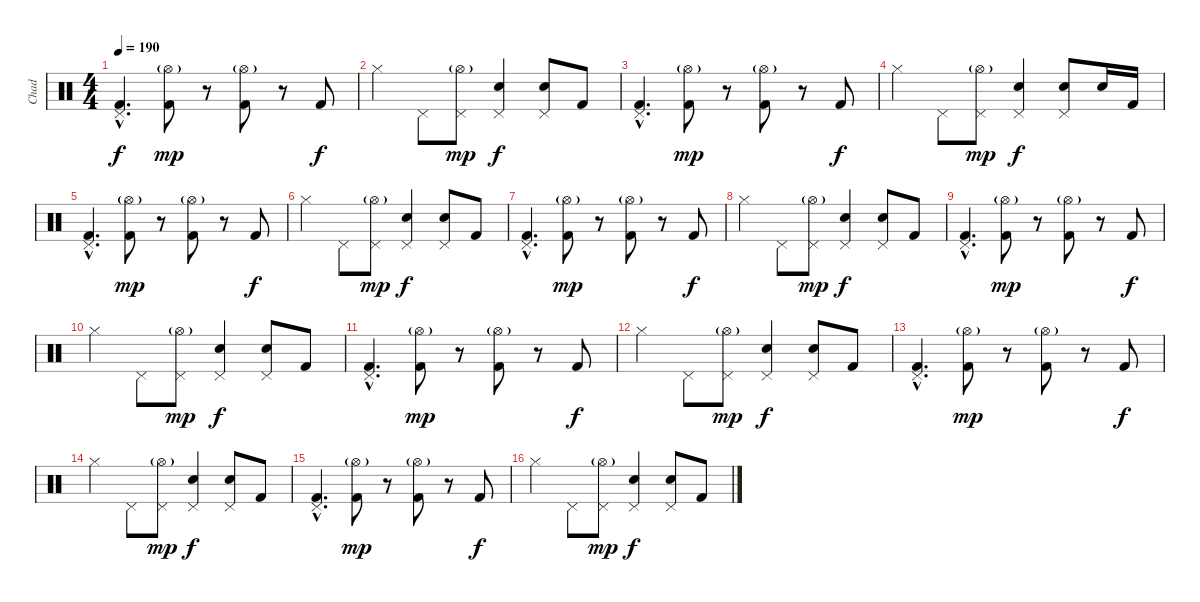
\track ("Chad" "Chad") {instrument percussion}
\staff {score}
\articulation defaults
\ts (4 4)
\tempo 190
\clef neutral
\ks c
("Kick (hit) 2"{hac} "Pedal Hi-Hat (hit)"{hac}).4{d dy f} ("Kick (hit) 2" "Hi-Hat (open)"{g}).8{dy mp} r.8 ("Kick (hit) 2" "Hi-Hat (open)"{g}).8 r.8 "Kick (hit) 2".8{dy f} |
"Hi-Hat (closed)".4 "Pedal Hi-Hat (hit)".8 ("Pedal Hi-Hat (hit)" "Hi-Hat (open)"{g}).8{dy mp} ("Electric Snare (hit)" "Pedal Hi-Hat (hit)").4{dy f} ("Electric Snare (hit)" "Pedal Hi-Hat (hit)").8 "Kick (hit) 2".8 |
("Kick (hit) 2"{hac} "Pedal Hi-Hat (hit)"{hac}).4{d} ("Kick (hit) 2" "Hi-Hat (open)"{g}).8{dy mp} r.8 ("Kick (hit) 2" "Hi-Hat (open)"{g}).8 r.8 "Kick (hit) 2".8{dy f} |
"Hi-Hat (closed)".4 "Pedal Hi-Hat (hit)".8 ("Pedal Hi-Hat (hit)" "Hi-Hat (open)"{g}).8{dy mp} ("Electric Snare (hit)" "Pedal Hi-Hat (hit)").4{dy f} ("Electric Snare (hit)" "Pedal Hi-Hat (hit)").8 "Electric Snare (hit)".16 "Kick (hit) 2".16 |
("Kick (hit) 2"{hac} "Pedal Hi-Hat (hit)"{hac}).4{d} ("Kick (hit) 2" "Hi-Hat (open)"{g}).8{dy mp} r.8 ("Kick (hit) 2" "Hi-Hat (open)"{g}).8 r.8 "Kick (hit) 2".8{dy f} |
"Hi-Hat (closed)".4 "Pedal Hi-Hat (hit)".8 ("Pedal Hi-Hat (hit)" "Hi-Hat (open)"{g}).8{dy mp} ("Electric Snare (hit)" "Pedal Hi-Hat (hit)").4{dy f} ("Electric Snare (hit)" "Pedal Hi-Hat (hit)").8 "Kick (hit) 2".8 |
("Kick (hit) 2"{hac} "Pedal Hi-Hat (hit)"{hac}).4{d} ("Kick (hit) 2" "Hi-Hat (open)"{g}).8{dy mp} r.8 ("Kick (hit) 2" "Hi-Hat (open)"{g}).8 r.8 "Kick (hit) 2".8{dy f} |
"Hi-Hat (closed)".4 "Pedal Hi-Hat (hit)".8 ("Pedal Hi-Hat (hit)" "Hi-Hat (open)"{g}).8{dy mp} ("Electric Snare (hit)" "Pedal Hi-Hat (hit)").4{dy f} ("Electric Snare (hit)" "Pedal Hi-Hat (hit)").8 "Kick (hit) 2".8 |
("Kick (hit) 2"{hac} "Pedal Hi-Hat (hit)"{hac}).4{d} ("Kick (hit) 2" "Hi-Hat (open)"{g}).8{dy mp} r.8 ("Kick (hit) 2" "Hi-Hat (open)"{g}).8 r.8 "Kick (hit) 2".8{dy f} |
"Hi-Hat (closed)".4 "Pedal Hi-Hat (hit)".8 ("Pedal Hi-Hat (hit)" "Hi-Hat (open)"{g}).8{dy mp} ("Electric Snare (hit)" "Pedal Hi-Hat (hit)").4{dy f} ("Electric Snare (hit)" "Pedal Hi-Hat (hit)").8 "Kick (hit) 2".8 |
("Kick (hit) 2"{hac} "Pedal Hi-Hat (hit)"{hac}).4{d} ("Kick (hit) 2" "Hi-Hat (open)"{g}).8{dy mp} r.8 ("Kick (hit) 2" "Hi-Hat (open)"{g}).8 r.8 "Kick (hit) 2".8{dy f} |
"Hi-Hat (closed)".4 "Pedal Hi-Hat (hit)".8 ("Pedal Hi-Hat (hit)" "Hi-Hat (open)"{g}).8{dy mp} ("Electric Snare (hit)" "Pedal Hi-Hat (hit)").4{dy f} ("Electric Snare (hit)" "Pedal Hi-Hat (hit)").8 "Kick (hit) 2".8 |
("Kick (hit) 2"{hac} "Pedal Hi-Hat (hit)"{hac}).4{d} ("Kick (hit) 2" "Hi-Hat (open)"{g}).8{dy mp} r.8 ("Kick (hit) 2" "Hi-Hat (open)"{g}).8 r.8 "Kick (hit) 2".8{dy f} |
"Hi-Hat (closed)".4 "Pedal Hi-Hat (hit)".8 ("Pedal Hi-Hat (hit)" "Hi-Hat (open)"{g}).8{dy mp} ("Electric Snare (hit)" "Pedal Hi-Hat (hit)").4{dy f} ("Electric Snare (hit)" "Pedal Hi-Hat (hit)").8 "Kick (hit) 2".8 |
("Kick (hit) 2"{hac} "Pedal Hi-Hat (hit)"{hac}).4{d} ("Kick (hit) 2" "Hi-Hat (open)"{g}).8{dy mp} r.8 ("Kick (hit) 2" "Hi-Hat (open)"{g}).8 r.8 "Kick (hit) 2".8{dy f} |
"Hi-Hat (closed)".4 "Pedal Hi-Hat (hit)".8 ("Pedal Hi-Hat (hit)" "Hi-Hat (open)"{g}).8{dy mp} ("Electric Snare (hit)" "Pedal Hi-Hat (hit)").4{dy f} ("Electric Snare (hit)" "Pedal Hi-Hat (hit)").8 "Kick (hit) 2".8
